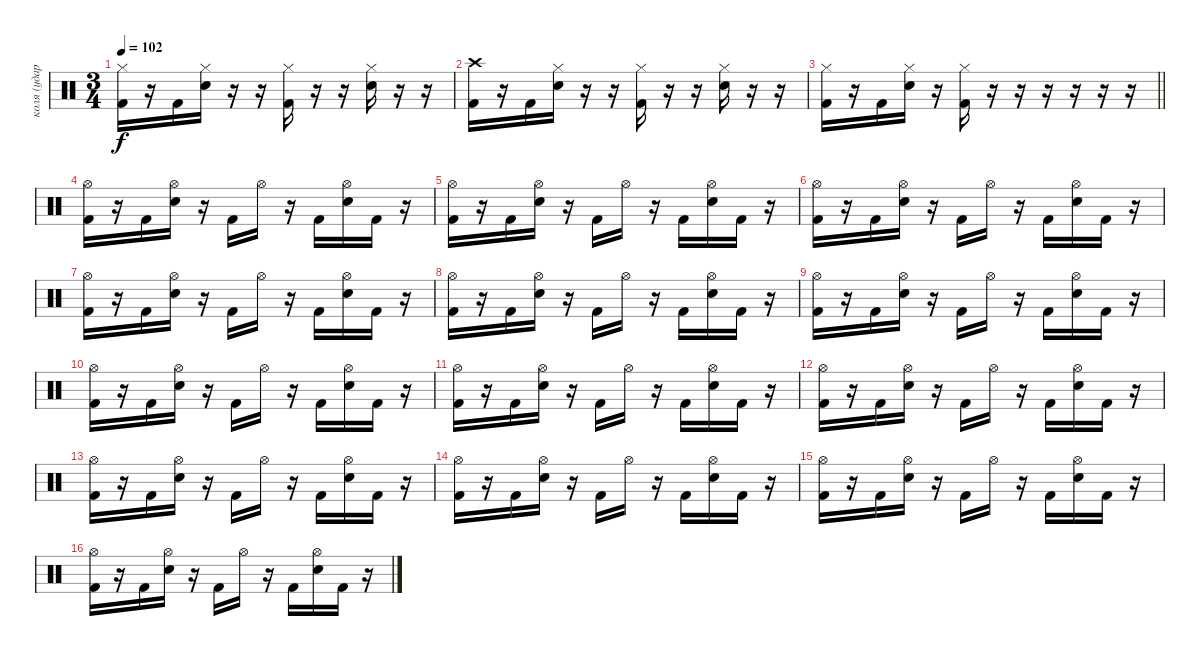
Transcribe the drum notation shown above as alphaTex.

\track ("коля (ударные)" "коля (удар") {instrument percussion}
\staff {score}
\articulation defaults
\ts (3 4)
\tempo 102
\clef neutral
\ks c
("Kick (hit) 2" "Hi-Hat (closed)").16{dy f} r.16 "Kick (hit) 2".16 ("Snare (hit) 2" "Hi-Hat (closed)").16 r.16 r.16 ("Kick (hit) 2" "Hi-Hat (closed)").16 r.16 r.16 ("Snare (hit) 2" "Hi-Hat (closed)").16 r.16 r.16 |
("Kick (hit) 2" "Crash high (hit)").16 r.16 "Kick (hit) 2".16 ("Snare (hit) 2" "Hi-Hat (closed)").16 r.16 r.16 ("Kick (hit) 2" "Hi-Hat (closed)").16 r.16 r.16 ("Snare (hit) 2" "Hi-Hat (closed)").16 r.16 r.16 |
\barLineRight lightlight
("Kick (hit) 2" "Hi-Hat (closed)").16 r.16 "Kick (hit) 2".16 ("Snare (hit) 2" "Hi-Hat (closed)").16 r.16 ("Kick (hit) 2" "Hi-Hat (closed)").16 r.16 r.16 r.16 r.16 r.16 r.16 |
("Kick (hit) 2" "Hi-Hat (open)").16 r.16 "Kick (hit) 2".16 ("Snare (hit) 2" "Hi-Hat (open)").16 r.16 "Kick (hit) 2".16 "Hi-Hat (open)".16 r.16 "Kick (hit) 2".16 ("Snare (hit) 2" "Hi-Hat (open)").16 "Kick (hit) 2".16 r.16 |
("Kick (hit) 2" "Hi-Hat (open)").16 r.16 "Kick (hit) 2".16 ("Snare (hit) 2" "Hi-Hat (open)").16 r.16 "Kick (hit) 2".16 "Hi-Hat (open)".16 r.16 "Kick (hit) 2".16 ("Snare (hit) 2" "Hi-Hat (open)").16 "Kick (hit) 2".16 r.16 |
("Kick (hit) 2" "Hi-Hat (open)").16 r.16 "Kick (hit) 2".16 ("Snare (hit) 2" "Hi-Hat (open)").16 r.16 "Kick (hit) 2".16 "Hi-Hat (open)".16 r.16 "Kick (hit) 2".16 ("Snare (hit) 2" "Hi-Hat (open)").16 "Kick (hit) 2".16 r.16 |
("Kick (hit) 2" "Hi-Hat (open)").16 r.16 "Kick (hit) 2".16 ("Snare (hit) 2" "Hi-Hat (open)").16 r.16 "Kick (hit) 2".16 "Hi-Hat (open)".16 r.16 "Kick (hit) 2".16 ("Snare (hit) 2" "Hi-Hat (open)").16 "Kick (hit) 2".16 r.16 |
("Kick (hit) 2" "Hi-Hat (open)").16 r.16 "Kick (hit) 2".16 ("Snare (hit) 2" "Hi-Hat (open)").16 r.16 "Kick (hit) 2".16 "Hi-Hat (open)".16 r.16 "Kick (hit) 2".16 ("Snare (hit) 2" "Hi-Hat (open)").16 "Kick (hit) 2".16 r.16 |
("Kick (hit) 2" "Hi-Hat (open)").16 r.16 "Kick (hit) 2".16 ("Snare (hit) 2" "Hi-Hat (open)").16 r.16 "Kick (hit) 2".16 "Hi-Hat (open)".16 r.16 "Kick (hit) 2".16 ("Snare (hit) 2" "Hi-Hat (open)").16 "Kick (hit) 2".16 r.16 |
("Kick (hit) 2" "Hi-Hat (open)").16 r.16 "Kick (hit) 2".16 ("Snare (hit) 2" "Hi-Hat (open)").16 r.16 "Kick (hit) 2".16 "Hi-Hat (open)".16 r.16 "Kick (hit) 2".16 ("Snare (hit) 2" "Hi-Hat (open)").16 "Kick (hit) 2".16 r.16 |
("Kick (hit) 2" "Hi-Hat (open)").16 r.16 "Kick (hit) 2".16 ("Snare (hit) 2" "Hi-Hat (open)").16 r.16 "Kick (hit) 2".16 "Hi-Hat (open)".16 r.16 "Kick (hit) 2".16 ("Snare (hit) 2" "Hi-Hat (open)").16 "Kick (hit) 2".16 r.16 |
("Kick (hit) 2" "Hi-Hat (open)").16 r.16 "Kick (hit) 2".16 ("Snare (hit) 2" "Hi-Hat (open)").16 r.16 "Kick (hit) 2".16 "Hi-Hat (open)".16 r.16 "Kick (hit) 2".16 ("Snare (hit) 2" "Hi-Hat (open)").16 "Kick (hit) 2".16 r.16 |
("Kick (hit) 2" "Hi-Hat (open)").16 r.16 "Kick (hit) 2".16 ("Snare (hit) 2" "Hi-Hat (open)").16 r.16 "Kick (hit) 2".16 "Hi-Hat (open)".16 r.16 "Kick (hit) 2".16 ("Snare (hit) 2" "Hi-Hat (open)").16 "Kick (hit) 2".16 r.16 |
("Kick (hit) 2" "Hi-Hat (open)").16 r.16 "Kick (hit) 2".16 ("Snare (hit) 2" "Hi-Hat (open)").16 r.16 "Kick (hit) 2".16 "Hi-Hat (open)".16 r.16 "Kick (hit) 2".16 ("Snare (hit) 2" "Hi-Hat (open)").16 "Kick (hit) 2".16 r.16 |
("Kick (hit) 2" "Hi-Hat (open)").16 r.16 "Kick (hit) 2".16 ("Snare (hit) 2" "Hi-Hat (open)").16 r.16 "Kick (hit) 2".16 "Hi-Hat (open)".16 r.16 "Kick (hit) 2".16 ("Snare (hit) 2" "Hi-Hat (open)").16 "Kick (hit) 2".16 r.16 |
("Kick (hit) 2" "Hi-Hat (open)").16 r.16 "Kick (hit) 2".16 ("Snare (hit) 2" "Hi-Hat (open)").16 r.16 "Kick (hit) 2".16 "Hi-Hat (open)".16 r.16 "Kick (hit) 2".16 ("Snare (hit) 2" "Hi-Hat (open)").16 "Kick (hit) 2".16 r.16
